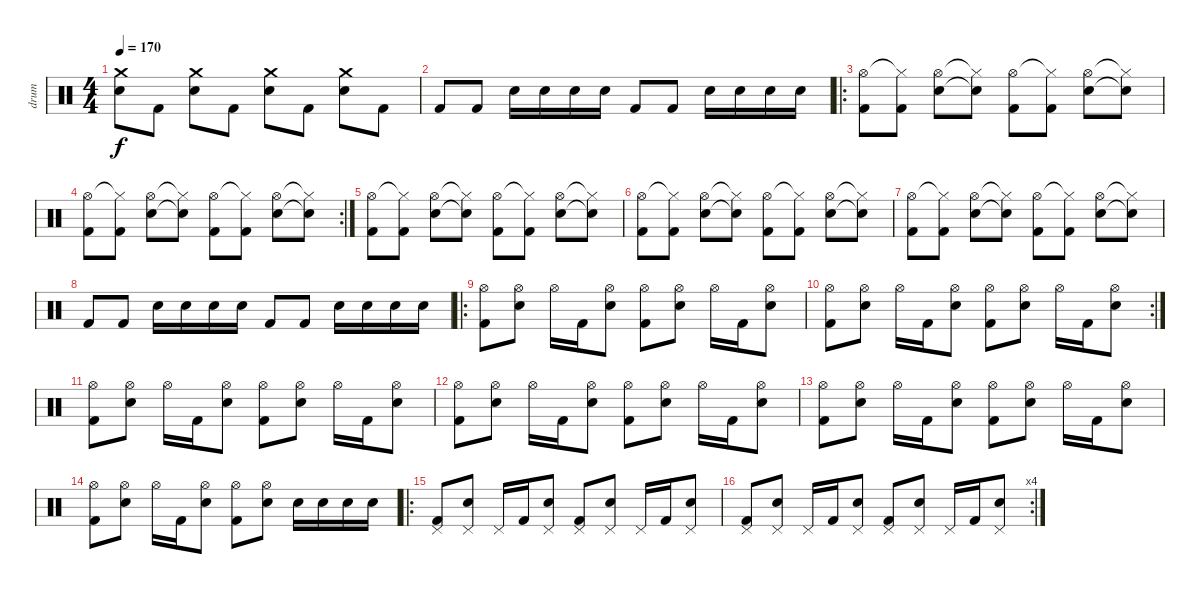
\track ("drum" "drum") {instrument percussion}
\staff {score}
\articulation defaults
\ts (4 4)
\tempo 170
\clef neutral
\ks c
("Crash medium (hit)" "Snare (hit) 2").8{dy f} "Kick (hit) 2".8 ("Crash medium (hit)" "Snare (hit) 2").8 "Kick (hit) 2".8 ("Crash medium (hit)" "Snare (hit) 2").8 "Kick (hit) 2".8 ("Crash medium (hit)" "Snare (hit) 2").8 "Kick (hit) 2".8 |
"Kick (hit) 2".8 "Kick (hit) 2".8 "Snare (hit) 2".16 "Snare (hit) 2".16 "Snare (hit) 2".16 "Snare (hit) 2".16 "Kick (hit) 2".8 "Kick (hit) 2".8 "Snare (hit) 2".16 "Snare (hit) 2".16 "Snare (hit) 2".16 "Snare (hit) 2".16 |
\ro
("Hi-Hat (open)" "Kick (hit) 2").8 ("Hi-Hat (closed)"{t} "Kick (hit) 2").8 ("Hi-Hat (open)" "Snare (hit) 2").8 ("Hi-Hat (closed)"{t} "Snare (hit)"{t}).8 ("Hi-Hat (open)" "Kick (hit) 2").8 ("Hi-Hat (closed)"{t} "Kick (hit) 2").8 ("Hi-Hat (open)" "Snare (hit) 2").8 ("Hi-Hat (closed)"{t} "Snare (hit) 2"{t}).8 |
\rc 2
("Hi-Hat (open)" "Kick (hit) 2").8 ("Hi-Hat (closed)"{t} "Kick (hit) 2").8 ("Hi-Hat (open)" "Snare (hit) 2").8 ("Hi-Hat (closed)"{t} "Snare (hit)"{t}).8 ("Hi-Hat (open)" "Kick (hit) 2").8 ("Hi-Hat (closed)"{t} "Kick (hit) 2").8 ("Hi-Hat (open)" "Snare (hit) 2").8 ("Hi-Hat (closed)"{t} "Snare (hit) 2"{t}).8 |
("Hi-Hat (open)" "Kick (hit) 2").8 ("Hi-Hat (closed)"{t} "Kick (hit) 2").8 ("Hi-Hat (open)" "Snare (hit) 2").8 ("Hi-Hat (closed)"{t} "Snare (hit)"{t}).8 ("Hi-Hat (open)" "Kick (hit) 2").8 ("Hi-Hat (closed)"{t} "Kick (hit) 2").8 ("Hi-Hat (open)" "Snare (hit) 2").8 ("Hi-Hat (closed)"{t} "Snare (hit) 2"{t}).8 |
("Hi-Hat (open)" "Kick (hit) 2").8 ("Hi-Hat (closed)"{t} "Kick (hit) 2").8 ("Hi-Hat (open)" "Snare (hit) 2").8 ("Hi-Hat (closed)"{t} "Snare (hit)"{t}).8 ("Hi-Hat (open)" "Kick (hit) 2").8 ("Hi-Hat (closed)"{t} "Kick (hit) 2").8 ("Hi-Hat (open)" "Snare (hit) 2").8 ("Hi-Hat (closed)"{t} "Snare (hit) 2"{t}).8 |
("Hi-Hat (open)" "Kick (hit) 2").8 ("Hi-Hat (closed)"{t} "Kick (hit) 2").8 ("Hi-Hat (open)" "Snare (hit) 2").8 ("Hi-Hat (closed)"{t} "Snare (hit)"{t}).8 ("Hi-Hat (open)" "Kick (hit) 2").8 ("Hi-Hat (closed)"{t} "Kick (hit) 2").8 ("Hi-Hat (open)" "Snare (hit) 2").8 ("Hi-Hat (closed)"{t} "Snare (hit) 2"{t}).8 |
"Kick (hit) 2".8 "Kick (hit) 2".8 "Snare (hit) 2".16 "Snare (hit) 2".16 "Snare (hit) 2".16 "Snare (hit) 2".16 "Kick (hit) 2".8 "Kick (hit) 2".8 "Snare (hit) 2".16 "Snare (hit) 2".16 "Snare (hit) 2".16 "Snare (hit) 2".16 |
\ro
("Hi-Hat (open)" "Kick (hit) 2").8 ("Hi-Hat (open)" "Snare (hit) 2").8 "Hi-Hat (open)".16 "Kick (hit) 2".16 ("Hi-Hat (open)" "Snare (hit) 2").8 ("Hi-Hat (open)" "Kick (hit) 2").8 ("Hi-Hat (open)" "Snare (hit) 2").8 "Hi-Hat (open)".16 "Kick (hit) 2".16 ("Hi-Hat (open)" "Snare (hit) 2").8 |
\rc 2
("Hi-Hat (open)" "Kick (hit) 2").8 ("Hi-Hat (open)" "Snare (hit) 2").8 "Hi-Hat (open)".16 "Kick (hit) 2".16 ("Hi-Hat (open)" "Snare (hit) 2").8 ("Hi-Hat (open)" "Kick (hit) 2").8 ("Hi-Hat (open)" "Snare (hit) 2").8 "Hi-Hat (open)".16 "Kick (hit) 2".16 ("Hi-Hat (open)" "Snare (hit) 2").8 |
("Hi-Hat (open)" "Kick (hit) 2").8 ("Hi-Hat (open)" "Snare (hit) 2").8 "Hi-Hat (open)".16 "Kick (hit) 2".16 ("Hi-Hat (open)" "Snare (hit) 2").8 ("Hi-Hat (open)" "Kick (hit) 2").8 ("Hi-Hat (open)" "Snare (hit) 2").8 "Hi-Hat (open)".16 "Kick (hit) 2".16 ("Hi-Hat (open)" "Snare (hit) 2").8 |
("Hi-Hat (open)" "Kick (hit) 2").8 ("Hi-Hat (open)" "Snare (hit) 2").8 "Hi-Hat (open)".16 "Kick (hit) 2".16 ("Hi-Hat (open)" "Snare (hit) 2").8 ("Hi-Hat (open)" "Kick (hit) 2").8 ("Hi-Hat (open)" "Snare (hit) 2").8 "Hi-Hat (open)".16 "Kick (hit) 2".16 ("Hi-Hat (open)" "Snare (hit) 2").8 |
("Hi-Hat (open)" "Kick (hit) 2").8 ("Hi-Hat (open)" "Snare (hit) 2").8 "Hi-Hat (open)".16 "Kick (hit) 2".16 ("Hi-Hat (open)" "Snare (hit) 2").8 ("Hi-Hat (open)" "Kick (hit) 2").8 ("Hi-Hat (open)" "Snare (hit) 2").8 "Hi-Hat (open)".16 "Kick (hit) 2".16 ("Hi-Hat (open)" "Snare (hit) 2").8 |
("Hi-Hat (open)" "Kick (hit) 2").8 ("Hi-Hat (open)" "Snare (hit) 2").8 "Hi-Hat (open)".16 "Kick (hit) 2".16 ("Hi-Hat (open)" "Snare (hit) 2").8 ("Hi-Hat (open)" "Kick (hit) 2").8 ("Hi-Hat (open)" "Snare (hit) 2").8 "Snare (hit) 2".16 "Snare (hit) 2".16 "Snare (hit) 2".16 "Snare (hit) 2".16 |
\ro
("Pedal Hi-Hat (hit)" "Kick (hit) 2").8 ("Pedal Hi-Hat (hit)" "Snare (hit) 2").8 "Pedal Hi-Hat (hit)".16 "Kick (hit) 2".16 ("Pedal Hi-Hat (hit)" "Snare (hit) 2").8 ("Pedal Hi-Hat (hit)" "Kick (hit) 2").8 ("Pedal Hi-Hat (hit)" "Snare (hit) 2").8 "Pedal Hi-Hat (hit)".16 "Kick (hit) 2".16 ("Pedal Hi-Hat (hit)" "Snare (hit) 2").8 |
\rc 4
("Pedal Hi-Hat (hit)" "Kick (hit) 2").8 ("Pedal Hi-Hat (hit)" "Snare (hit) 2").8 "Pedal Hi-Hat (hit)".16 "Kick (hit) 2".16 ("Pedal Hi-Hat (hit)" "Snare (hit) 2").8 ("Pedal Hi-Hat (hit)" "Kick (hit) 2").8 ("Pedal Hi-Hat (hit)" "Snare (hit) 2").8 "Pedal Hi-Hat (hit)".16 "Kick (hit) 2".16 ("Pedal Hi-Hat (hit)" "Snare (hit) 2").8
